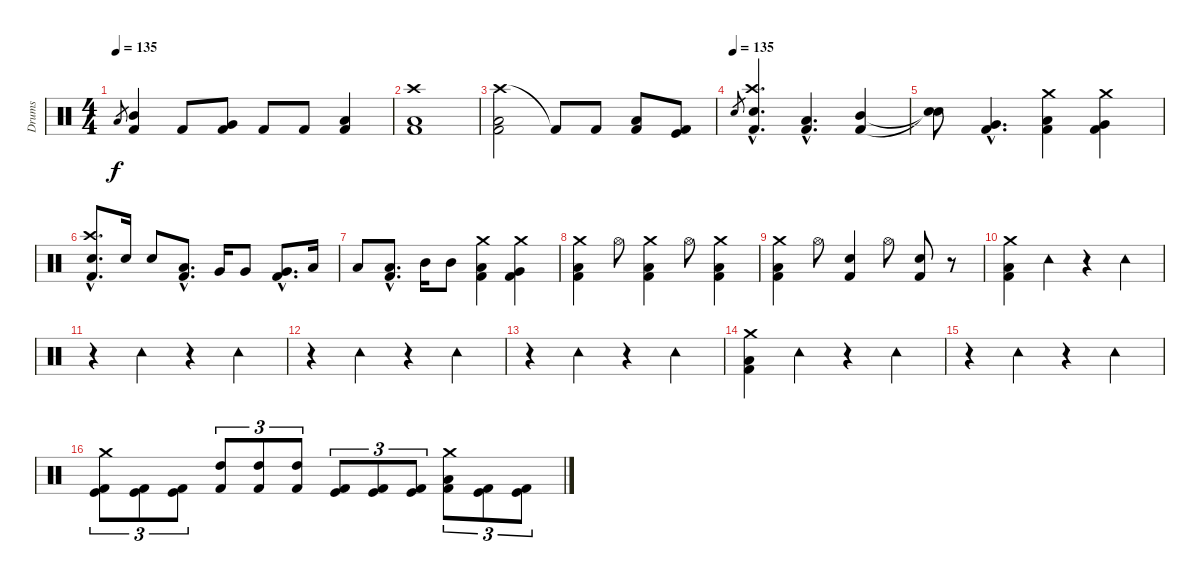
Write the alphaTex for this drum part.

\track ("Drums" "Drums") {instrument percussion}
\staff {score}
\articulation defaults
\ts (4 4)
\tempo 135
\clef neutral
\ks c "Low Tom (hit)".8{gr dy f}
("Mid Tom (hit)" "Kick (hit) 2").4 "Kick (hit) 2".8 ("Very Low Tom (hit)" "Kick (hit) 2").8 "Kick (hit) 2".8 "Kick (hit) 2".8 ("Low Floor Tom (hit)" "Kick (hit) 2").4 |
("Crash high (hit)" "Low Floor Tom (hit)" "Kick (hit) 2").1 |
("Crash high (hit)" "Low Floor Tom (hit)" "Kick (hit) 2").2 "Kick (hit) 2"{t}.8 "Kick (hit) 2".8 ("Low Floor Tom (hit)" "Kick (hit) 2").8 ("Kick (hit)" "Kick (hit) 2").8 |
\tempo (135)
"Snare (hit) 2".8{gr} ("Crash high (hit)"{hac} "Electric Snare (hit)"{hac} "Kick (hit) 2"{hac}).4{d} ("Low Floor Tom (hit)"{hac} "Kick (hit) 2"{hac}).4{d} ("Mid Tom (hit)" "Kick (hit) 2").4 |
("Snare (hit)"{t} "Snare (hit)"{t}).8 ("Very Low Tom (hit)"{hac} "Kick (hit) 2"{hac}).4{d} ("Crash medium (hit)" "Low Floor Tom (hit)" "Kick (hit) 2").4 ("Crash medium (hit)" "Very Low Tom (hit)" "Kick (hit) 2").4 |
("Crash high (hit)"{hac} "Electric Snare (hit)"{hac} "Kick (hit) 2"{hac}).8{d} "Snare (hit) 2".16 "Snare (hit) 2".8 ("Low Floor Tom (hit)"{hac} "Kick (hit) 2"{hac}).8{d} "Very Low Tom (hit)".16 "Very Low Tom (hit)".8 ("Very Low Tom (hit)"{hac} "Kick (hit) 2"{hac}).8{d} "Low Tom (hit)".16 |
"Low Tom (hit)".8 ("Low Tom (hit)"{hac} "Kick (hit) 2"{hac}).8{d} "Mid Tom (hit)".16 "Mid Tom (hit)".8 ("Crash medium (hit)" "Low Floor Tom (hit)" "Kick (hit) 2").4 ("Crash medium (hit)" "Very Low Tom (hit)" "Kick (hit) 2").4 |
("Crash medium (hit)" "Low Floor Tom (hit)" "Kick (hit) 2").4 "Hi-Hat (open)".8 ("Crash medium (hit)" "Low Floor Tom (hit)" "Kick (hit) 2").4 "Hi-Hat (open)".8 ("Crash medium (hit)" "Low Floor Tom (hit)" "Kick (hit) 2").4 |
("Crash medium (hit)" "Low Floor Tom (hit)" "Kick (hit) 2").4 "Hi-Hat (open)".8 ("Electric Snare (hit)" "Kick (hit) 2").4 "Hi-Hat (open)".8 ("Snare (hit) 2" "Kick (hit) 2").8 r.8 |
("Crash medium (hit)" "Low Floor Tom (hit)" "Kick (hit) 2").4 "Tambourine (hit)".4 r.4 "Tambourine (hit)".4 |
r.4 "Tambourine (hit)".4 r.4 "Tambourine (hit)".4 |
r.4 "Tambourine (hit)".4 r.4 "Tambourine (hit)".4 |
r.4 "Tambourine (hit)".4 r.4 "Tambourine (hit)".4 |
("Crash medium (hit)" "Low Floor Tom (hit)" "Kick (hit) 2").4 "Tambourine (hit)".4 r.4 "Tambourine (hit)".4 |
r.4 "Tambourine (hit)".4 r.4 "Tambourine (hit)".4 |
("Crash medium (hit)" "Kick (hit)" "Kick (hit) 2").8{tu (3 2)} ("Kick (hit)" "Kick (hit) 2").8{tu (3 2)} ("Kick (hit)" "Kick (hit) 2").8{tu (3 2)} ("High Tom (hit)" "Kick (hit) 2").8{tu (3 2)} ("High Tom (hit)" "Kick (hit) 2").8{tu (3 2)} ("High Tom (hit)" "Kick (hit) 2").8{tu (3 2)} ("Kick (hit)" "Kick (hit) 2").8{tu (3 2)} ("Kick (hit)" "Kick (hit) 2").8{tu (3 2)} ("Kick (hit)" "Kick (hit) 2").8{tu (3 2)} ("Crash medium (hit)" "Low Floor Tom (hit)" "Kick (hit) 2").8{tu (3 2)} ("Kick (hit)" "Kick (hit) 2").8{tu (3 2)} ("Kick (hit)" "Kick (hit) 2").8{tu (3 2)}
